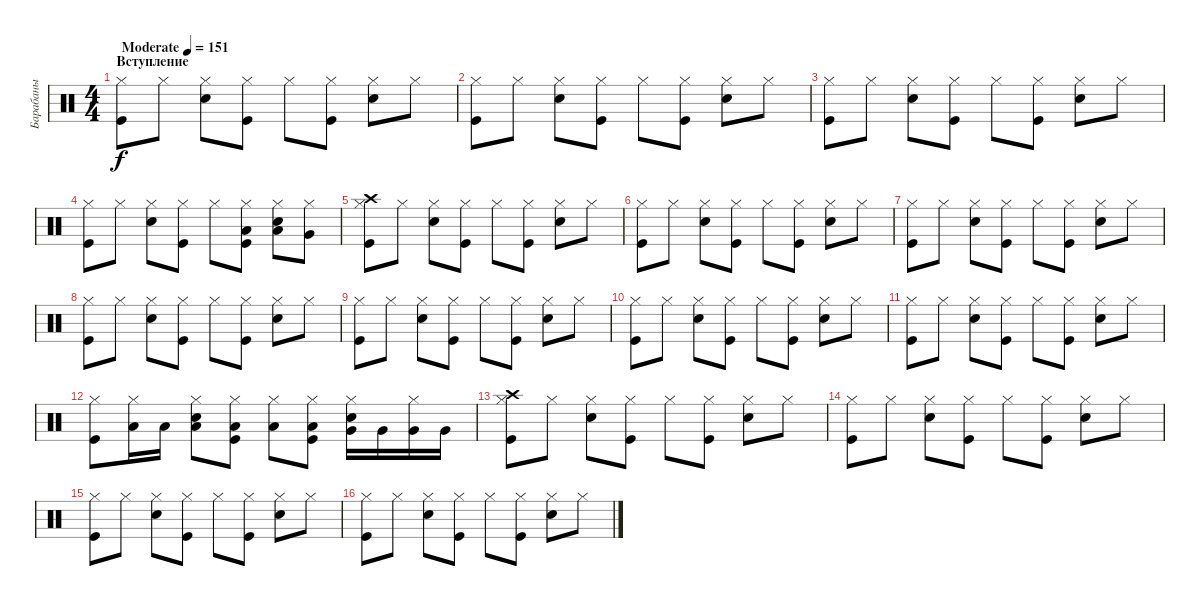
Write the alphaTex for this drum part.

\track ("Барабаны" "Барабаны") {instrument percussion}
\staff {score}
\articulation defaults
\ts (4 4)
\section ("" "Вступление")
\tempo (151 "Moderate")
\clef neutral
\ks c
("Kick (hit)" "Hi-Hat (closed)").8{dy f} "Hi-Hat (closed)".8 ("Snare (hit) 2" "Hi-Hat (closed)").8 ("Kick (hit)" "Hi-Hat (closed)").8 "Hi-Hat (closed)".8 ("Kick (hit)" "Hi-Hat (closed)").8 ("Snare (hit) 2" "Hi-Hat (closed)").8 "Hi-Hat (closed)".8 |
("Kick (hit)" "Hi-Hat (closed)").8 "Hi-Hat (closed)".8 ("Snare (hit) 2" "Hi-Hat (closed)").8 ("Kick (hit)" "Hi-Hat (closed)").8 "Hi-Hat (closed)".8 ("Kick (hit)" "Hi-Hat (closed)").8 ("Snare (hit) 2" "Hi-Hat (closed)").8 "Hi-Hat (closed)".8 |
("Kick (hit)" "Hi-Hat (closed)").8 "Hi-Hat (closed)".8 ("Snare (hit) 2" "Hi-Hat (closed)").8 ("Kick (hit)" "Hi-Hat (closed)").8 "Hi-Hat (closed)".8 ("Kick (hit)" "Hi-Hat (closed)").8 ("Snare (hit) 2" "Hi-Hat (closed)").8 "Hi-Hat (closed)".8 |
("Kick (hit)" "Hi-Hat (closed)").8 "Hi-Hat (closed)".8 ("Snare (hit) 2" "Hi-Hat (closed)").8 ("Kick (hit)" "Hi-Hat (closed)").8 "Hi-Hat (closed)".8 ("Kick (hit)" "Hi-Hat (closed)" "Low Tom (hit)").8 ("Snare (hit) 2" "Hi-Hat (closed)" "Low Tom (hit)").8 ("Hi-Hat (closed)" "Very Low Tom (hit)").8 |
("Kick (hit)" "Hi-Hat (closed)" "Crash high (hit)").8 "Hi-Hat (closed)".8 ("Snare (hit) 2" "Hi-Hat (closed)").8 ("Kick (hit)" "Hi-Hat (closed)").8 "Hi-Hat (closed)".8 ("Kick (hit)" "Hi-Hat (closed)").8 ("Snare (hit) 2" "Hi-Hat (closed)").8 "Hi-Hat (closed)".8 |
("Kick (hit)" "Hi-Hat (closed)").8 "Hi-Hat (closed)".8 ("Snare (hit) 2" "Hi-Hat (closed)").8 ("Kick (hit)" "Hi-Hat (closed)").8 "Hi-Hat (closed)".8 ("Kick (hit)" "Hi-Hat (closed)").8 ("Snare (hit) 2" "Hi-Hat (closed)").8 "Hi-Hat (closed)".8 |
("Kick (hit)" "Hi-Hat (closed)").8 "Hi-Hat (closed)".8 ("Snare (hit) 2" "Hi-Hat (closed)").8 ("Kick (hit)" "Hi-Hat (closed)").8 "Hi-Hat (closed)".8 ("Kick (hit)" "Hi-Hat (closed)").8 ("Snare (hit) 2" "Hi-Hat (closed)").8 "Hi-Hat (closed)".8 |
("Kick (hit)" "Hi-Hat (closed)").8 "Hi-Hat (closed)".8 ("Snare (hit) 2" "Hi-Hat (closed)").8 ("Kick (hit)" "Hi-Hat (closed)").8 "Hi-Hat (closed)".8 ("Kick (hit)" "Hi-Hat (closed)").8 ("Snare (hit) 2" "Hi-Hat (closed)").8 "Hi-Hat (closed)".8 |
("Kick (hit)" "Hi-Hat (closed)").8 "Hi-Hat (closed)".8 ("Snare (hit) 2" "Hi-Hat (closed)").8 ("Kick (hit)" "Hi-Hat (closed)").8 "Hi-Hat (closed)".8 ("Kick (hit)" "Hi-Hat (closed)").8 ("Snare (hit) 2" "Hi-Hat (closed)").8 "Hi-Hat (closed)".8 |
("Kick (hit)" "Hi-Hat (closed)").8 "Hi-Hat (closed)".8 ("Snare (hit) 2" "Hi-Hat (closed)").8 ("Kick (hit)" "Hi-Hat (closed)").8 "Hi-Hat (closed)".8 ("Kick (hit)" "Hi-Hat (closed)").8 ("Snare (hit) 2" "Hi-Hat (closed)").8 "Hi-Hat (closed)".8 |
("Kick (hit)" "Hi-Hat (closed)").8 "Hi-Hat (closed)".8 ("Snare (hit) 2" "Hi-Hat (closed)").8 ("Kick (hit)" "Hi-Hat (closed)").8 "Hi-Hat (closed)".8 ("Kick (hit)" "Hi-Hat (closed)").8 ("Snare (hit) 2" "Hi-Hat (closed)").8 "Hi-Hat (closed)".8 |
("Kick (hit)" "Hi-Hat (closed)").8 ("Hi-Hat (closed)" "Low Tom (hit)").16 "Low Tom (hit)".16 ("Snare (hit) 2" "Hi-Hat (closed)" "Low Tom (hit)").8 ("Kick (hit)" "Hi-Hat (closed)" "Low Tom (hit)").8 ("Hi-Hat (closed)" "Low Tom (hit)").8 ("Kick (hit)" "Hi-Hat (closed)" "Low Tom (hit)").8 ("Snare (hit) 2" "Hi-Hat (closed)" "Very Low Tom (hit)").16 "Very Low Tom (hit)".16 ("Hi-Hat (closed)" "Very Low Tom (hit)").16 "Very Low Tom (hit)".16 |
("Kick (hit)" "Hi-Hat (closed)" "Crash high (hit)").8 "Hi-Hat (closed)".8 ("Snare (hit) 2" "Hi-Hat (closed)").8 ("Kick (hit)" "Hi-Hat (closed)").8 "Hi-Hat (closed)".8 ("Kick (hit)" "Hi-Hat (closed)").8 ("Snare (hit) 2" "Hi-Hat (closed)").8 "Hi-Hat (closed)".8 |
("Kick (hit)" "Hi-Hat (closed)").8 "Hi-Hat (closed)".8 ("Snare (hit) 2" "Hi-Hat (closed)").8 ("Kick (hit)" "Hi-Hat (closed)").8 "Hi-Hat (closed)".8 ("Kick (hit)" "Hi-Hat (closed)").8 ("Snare (hit) 2" "Hi-Hat (closed)").8 "Hi-Hat (closed)".8 |
("Kick (hit)" "Hi-Hat (closed)").8 "Hi-Hat (closed)".8 ("Snare (hit) 2" "Hi-Hat (closed)").8 ("Kick (hit)" "Hi-Hat (closed)").8 "Hi-Hat (closed)".8 ("Kick (hit)" "Hi-Hat (closed)").8 ("Snare (hit) 2" "Hi-Hat (closed)").8 "Hi-Hat (closed)".8 |
("Kick (hit)" "Hi-Hat (closed)").8 "Hi-Hat (closed)".8 ("Snare (hit) 2" "Hi-Hat (closed)").8 ("Kick (hit)" "Hi-Hat (closed)").8 "Hi-Hat (closed)".8 ("Kick (hit)" "Hi-Hat (closed)").8 ("Snare (hit) 2" "Hi-Hat (closed)").8 "Hi-Hat (closed)".8
